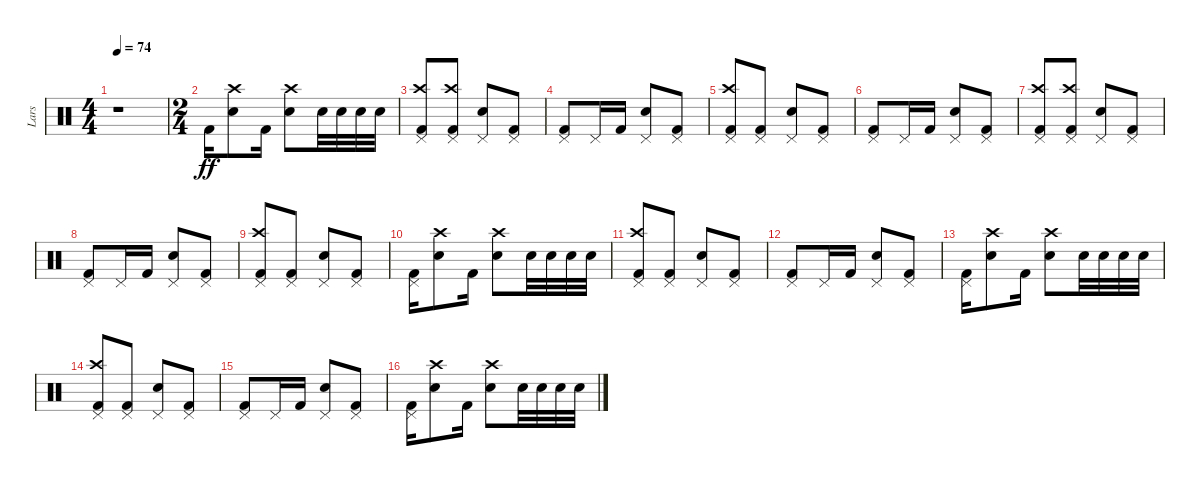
\track ("Lars" "Lars") {instrument percussion}
\staff {score}
\articulation defaults
\ts (4 4)
\tempo 74
\clef neutral
\ks c
r.1{dy ff} |
\ts (2 4)
"Kick (hit) 2".16 ("Crash high (hit)" "Snare (hit) 2").8 "Kick (hit) 2".16 ("Crash high (hit)" "Snare (hit) 2").8 "Snare (hit) 2".32 "Snare (hit) 2".32 "Snare (hit) 2".32 "Snare (hit) 2".32 |
("Pedal Hi-Hat (hit)" "Crash high (hit)" "Kick (hit) 2").8 ("Pedal Hi-Hat (hit)" "Crash high (hit)" "Kick (hit) 2").8 ("Pedal Hi-Hat (hit)" "Snare (hit) 2").8 ("Pedal Hi-Hat (hit)" "Kick (hit) 2").8 |
("Pedal Hi-Hat (hit)" "Kick (hit) 2").8 "Pedal Hi-Hat (hit)".16 "Kick (hit) 2".16 ("Pedal Hi-Hat (hit)" "Snare (hit) 2").8 ("Pedal Hi-Hat (hit)" "Kick (hit) 2").8 |
("Pedal Hi-Hat (hit)" "Crash high (hit)" "Kick (hit) 2").8 ("Pedal Hi-Hat (hit)" "Kick (hit) 2").8 ("Pedal Hi-Hat (hit)" "Snare (hit) 2").8 ("Pedal Hi-Hat (hit)" "Kick (hit) 2").8 |
("Pedal Hi-Hat (hit)" "Kick (hit) 2").8 "Pedal Hi-Hat (hit)".16 "Kick (hit) 2".16 ("Pedal Hi-Hat (hit)" "Snare (hit) 2").8 ("Pedal Hi-Hat (hit)" "Kick (hit) 2").8 |
("Pedal Hi-Hat (hit)" "Crash high (hit)" "Kick (hit) 2").8 ("Pedal Hi-Hat (hit)" "Crash high (hit)" "Kick (hit) 2").8 ("Pedal Hi-Hat (hit)" "Snare (hit) 2").8 ("Pedal Hi-Hat (hit)" "Kick (hit) 2").8 |
("Pedal Hi-Hat (hit)" "Kick (hit) 2").8 "Pedal Hi-Hat (hit)".16 "Kick (hit) 2".16 ("Pedal Hi-Hat (hit)" "Snare (hit) 2").8 ("Pedal Hi-Hat (hit)" "Kick (hit) 2").8 |
("Pedal Hi-Hat (hit)" "Crash high (hit)" "Kick (hit) 2").8 ("Pedal Hi-Hat (hit)" "Kick (hit) 2").8 ("Pedal Hi-Hat (hit)" "Snare (hit) 2").8 ("Pedal Hi-Hat (hit)" "Kick (hit) 2").8 |
("Pedal Hi-Hat (hit)" "Kick (hit) 2").16 ("Crash high (hit)" "Snare (hit) 2").8 "Kick (hit) 2".16 ("Crash high (hit)" "Snare (hit) 2").8 "Snare (hit) 2".32 "Snare (hit) 2".32 "Snare (hit) 2".32 "Snare (hit) 2".32 |
("Pedal Hi-Hat (hit)" "Crash high (hit)" "Kick (hit) 2").8 ("Pedal Hi-Hat (hit)" "Kick (hit) 2").8 ("Pedal Hi-Hat (hit)" "Snare (hit) 2").8 ("Pedal Hi-Hat (hit)" "Kick (hit) 2").8 |
("Pedal Hi-Hat (hit)" "Kick (hit) 2").8 "Pedal Hi-Hat (hit)".16 "Kick (hit) 2".16 ("Pedal Hi-Hat (hit)" "Snare (hit) 2").8 ("Pedal Hi-Hat (hit)" "Kick (hit) 2").8 |
("Pedal Hi-Hat (hit)" "Kick (hit) 2").16 ("Crash high (hit)" "Snare (hit) 2").8 "Kick (hit) 2".16 ("Crash high (hit)" "Snare (hit) 2").8 "Snare (hit) 2".32 "Snare (hit) 2".32 "Snare (hit) 2".32 "Snare (hit) 2".32 |
("Pedal Hi-Hat (hit)" "Crash high (hit)" "Kick (hit) 2").8 ("Pedal Hi-Hat (hit)" "Kick (hit) 2").8 ("Pedal Hi-Hat (hit)" "Snare (hit) 2").8 ("Pedal Hi-Hat (hit)" "Kick (hit) 2").8 |
("Pedal Hi-Hat (hit)" "Kick (hit) 2").8 "Pedal Hi-Hat (hit)".16 "Kick (hit) 2".16 ("Pedal Hi-Hat (hit)" "Snare (hit) 2").8 ("Pedal Hi-Hat (hit)" "Kick (hit) 2").8 |
("Pedal Hi-Hat (hit)" "Kick (hit) 2").16 ("Crash high (hit)" "Snare (hit) 2").8 "Kick (hit) 2".16 ("Crash high (hit)" "Snare (hit) 2").8 "Snare (hit) 2".32 "Snare (hit) 2".32 "Snare (hit) 2".32 "Snare (hit) 2".32
